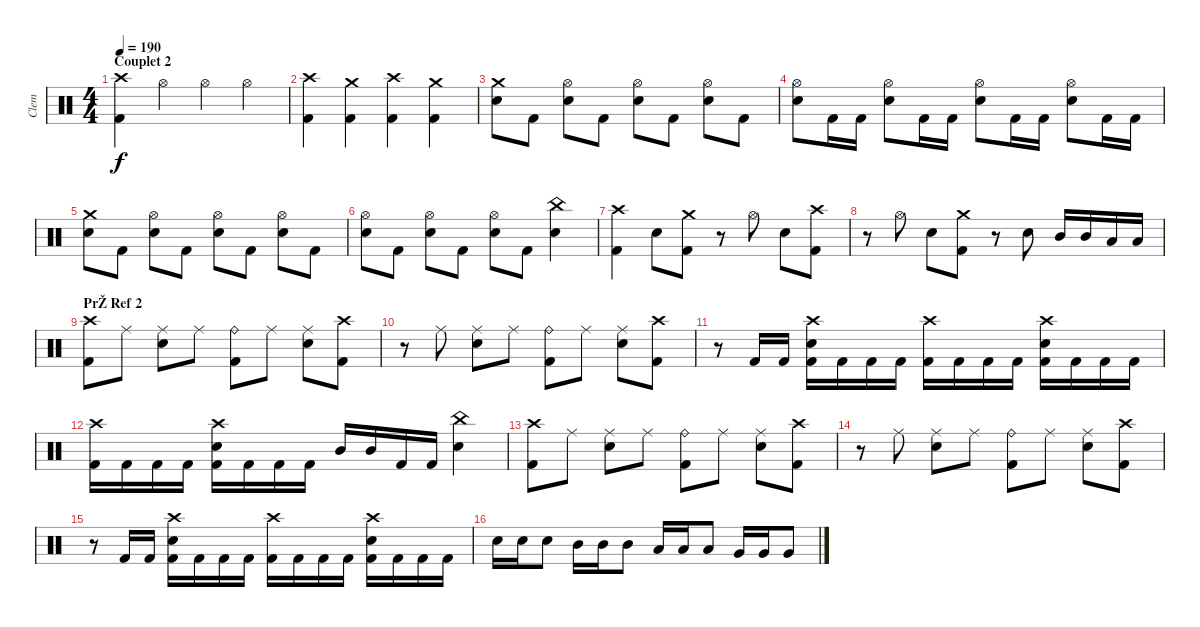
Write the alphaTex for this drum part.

\track ("Clem" "Clem") {instrument percussion}
\staff {score}
\articulation defaults
\ts (4 4)
\section ("" "Couplet 2")
\tempo 190
\clef neutral
\ks c
("Crash high (hit)" "Kick (hit) 2").4{dy f} "Hi-Hat (open)".4 "Hi-Hat (open)".4 "Hi-Hat (open)".4 |
("Crash high (hit)" "Kick (hit) 2").4 ("Crash medium (hit)" "Kick (hit) 2").4 ("Crash high (hit)" "Kick (hit) 2").4 ("Crash medium (hit)" "Kick (hit) 2").4 |
("Crash medium (hit)" "Electric Snare (hit)").8 "Kick (hit) 2".8 ("Hi-Hat (open)" "Electric Snare (hit)").8 "Kick (hit) 2".8 ("Hi-Hat (open)" "Electric Snare (hit)").8 "Kick (hit) 2".8 ("Hi-Hat (open)" "Electric Snare (hit)").8 "Kick (hit) 2".8 |
("Hi-Hat (open)" "Electric Snare (hit)").8 "Kick (hit) 2".16 "Kick (hit) 2".16 ("Hi-Hat (open)" "Electric Snare (hit)").8 "Kick (hit) 2".16 "Kick (hit) 2".16 ("Hi-Hat (open)" "Electric Snare (hit)").8 "Kick (hit) 2".16 "Kick (hit) 2".16 ("Hi-Hat (open)" "Electric Snare (hit)").8 "Kick (hit) 2".16 "Kick (hit) 2".16 |
("Crash medium (hit)" "Electric Snare (hit)").8 "Kick (hit) 2".8 ("Hi-Hat (open)" "Electric Snare (hit)").8 "Kick (hit) 2".8 ("Hi-Hat (open)" "Electric Snare (hit)").8 "Kick (hit) 2".8 ("Hi-Hat (open)" "Electric Snare (hit)").8 "Kick (hit) 2".8 |
("Hi-Hat (open)" "Electric Snare (hit)").8 "Kick (hit) 2".8 ("Hi-Hat (open)" "Electric Snare (hit)").8 "Kick (hit) 2".8 ("Hi-Hat (open)" "Electric Snare (hit)").8 "Kick (hit) 2".8 ("China (hit)" "Electric Snare (hit)").4 |
("Crash high (hit)" "Kick (hit) 2").4 "Electric Snare (hit)".8 ("Crash medium (hit)" "Kick (hit) 2").8 r.8 "Hi-Hat (open)".8 "Electric Snare (hit)".8 ("Crash high (hit)" "Kick (hit) 2").8 |
r.8 "Hi-Hat (open)".8 "Electric Snare (hit)".8 ("Crash medium (hit)" "Kick (hit) 2").8 r.8 "Electric Snare (hit)".8 "Mid Tom (hit)".16 "Mid Tom (hit)".16 "Low Tom (hit)".16 "Low Tom (hit)".16 |
\section ("" "PrŽ Ref 2")
("Crash high (hit)" "Kick (hit) 2").8 "Ride (middle)".8 ("Ride (middle)" "Electric Snare (hit)").8 "Ride (middle)".8 ("Ride (bell)" "Kick (hit) 2").8 "Ride (middle)".8 ("Ride (middle)" "Electric Snare (hit)").8 ("Crash high (hit)" "Kick (hit) 2").8 |
r.8 "Ride (middle)".8 ("Ride (middle)" "Electric Snare (hit)").8 "Ride (middle)".8 ("Ride (bell)" "Kick (hit) 2").8 "Ride (middle)".8 ("Ride (middle)" "Electric Snare (hit)").8 ("Crash high (hit)" "Kick (hit) 2").8 |
r.8 "Kick (hit) 2".16 "Kick (hit) 2".16 ("Crash high (hit)" "Electric Snare (hit)" "Kick (hit) 2").16 "Kick (hit) 2".16 "Kick (hit) 2".16 "Kick (hit) 2".16 ("Crash high (hit)" "Kick (hit) 2").16 "Kick (hit) 2".16 "Kick (hit) 2".16 "Kick (hit) 2".16 ("Crash high (hit)" "Electric Snare (hit)" "Kick (hit) 2").16 "Kick (hit) 2".16 "Kick (hit) 2".16 "Kick (hit) 2".16 |
("Crash high (hit)" "Kick (hit) 2").16 "Kick (hit) 2".16 "Kick (hit) 2".16 "Kick (hit) 2".16 ("Crash high (hit)" "Electric Snare (hit)" "Kick (hit) 2").16 "Kick (hit) 2".16 "Kick (hit) 2".16 "Kick (hit) 2".16 "Mid Tom (hit)".16 "Mid Tom (hit)".16 "Kick (hit) 2".16 "Kick (hit) 2".16 ("China (hit)" "Electric Snare (hit)").4 |
("Crash high (hit)" "Kick (hit) 2").8 "Ride (middle)".8 ("Ride (middle)" "Electric Snare (hit)").8 "Ride (middle)".8 ("Ride (bell)" "Kick (hit) 2").8 "Ride (middle)".8 ("Ride (middle)" "Electric Snare (hit)").8 ("Crash high (hit)" "Kick (hit) 2").8 |
r.8 "Ride (middle)".8 ("Ride (middle)" "Electric Snare (hit)").8 "Ride (middle)".8 ("Ride (bell)" "Kick (hit) 2").8 "Ride (middle)".8 ("Ride (middle)" "Electric Snare (hit)").8 ("Crash high (hit)" "Kick (hit) 2").8 |
r.8 "Kick (hit) 2".16 "Kick (hit) 2".16 ("Crash high (hit)" "Electric Snare (hit)" "Kick (hit) 2").16 "Kick (hit) 2".16 "Kick (hit) 2".16 "Kick (hit) 2".16 ("Crash high (hit)" "Kick (hit) 2").16 "Kick (hit) 2".16 "Kick (hit) 2".16 "Kick (hit) 2".16 ("Crash high (hit)" "Electric Snare (hit)" "Kick (hit) 2").16 "Kick (hit) 2".16 "Kick (hit) 2".16 "Kick (hit) 2".16 |
"Electric Snare (hit)".16 "Electric Snare (hit)".16 "Electric Snare (hit)".8 "Mid Tom (hit)".16 "Mid Tom (hit)".16 "Mid Tom (hit)".8 "Low Tom (hit)".16 "Low Tom (hit)".16 "Low Tom (hit)".8 "Very Low Tom (hit)".16 "Very Low Tom (hit)".16 "Very Low Tom (hit)".8
